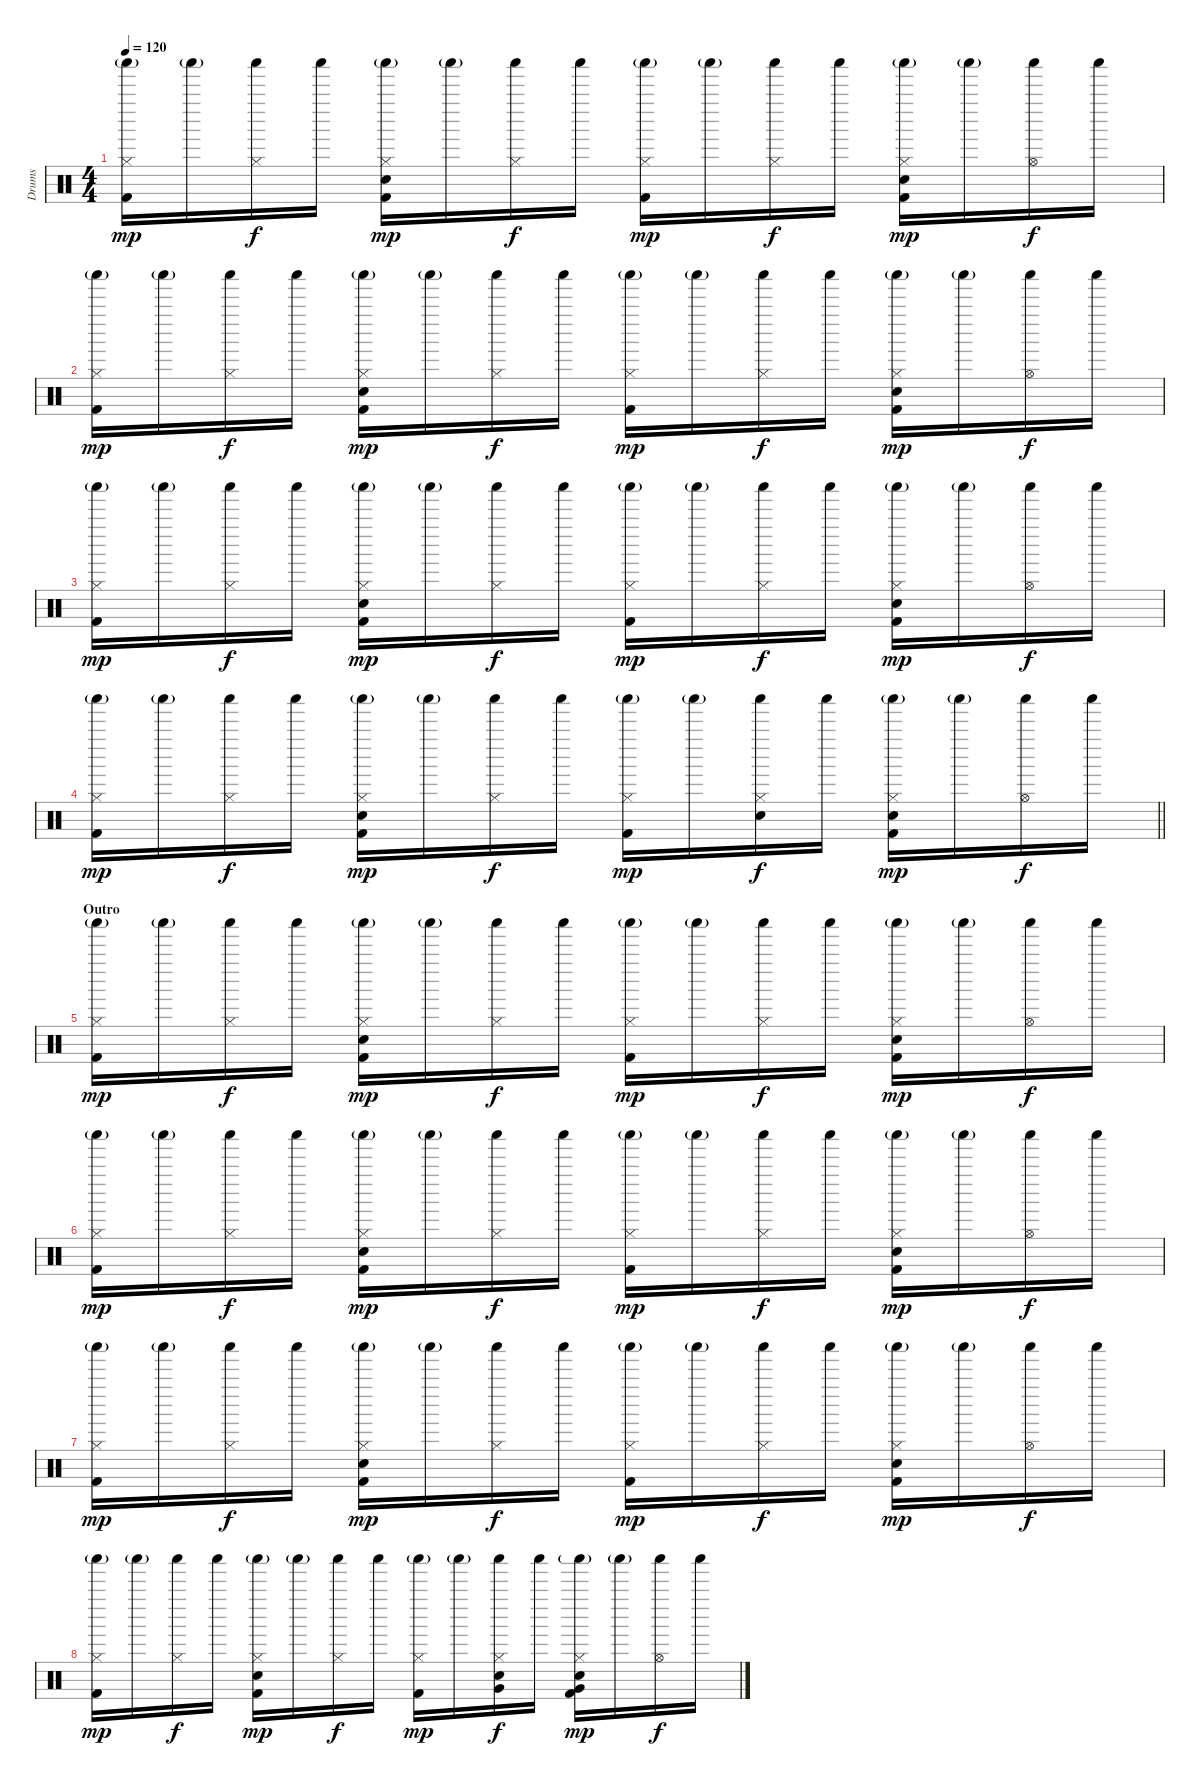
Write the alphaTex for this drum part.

\track ("Drums" "Drums") {instrument percussion}
\staff {score}
\articulation defaults
\ts (4 4)
\tempo 120
\clef neutral
\ks c
("Hi-Hat (closed)" "Shaker (hit)"{g} "Kick (hit) 2").16{dy mp} "Shaker (hit)"{g}.16 ("Hi-Hat (closed)" "Shaker (hit)").16{dy f} "Shaker (hit)".16 ("Hi-Hat (closed)" "Shaker (hit)"{g} "Electric Snare (hit)" "Kick (hit) 2").16{dy mp} "Shaker (hit)"{g}.16 ("Hi-Hat (closed)" "Shaker (hit)").16{dy f} "Shaker (hit)".16 ("Hi-Hat (closed)" "Shaker (hit)"{g} "Kick (hit) 2").16{dy mp} "Shaker (hit)"{g}.16 ("Hi-Hat (closed)" "Shaker (hit)").16{dy f} "Shaker (hit)".16 ("Hi-Hat (closed)" "Shaker (hit)"{g} "Electric Snare (hit)" "Kick (hit) 2").16{dy mp} "Shaker (hit)"{g}.16 ("Hi-Hat (open)" "Shaker (hit)").16{dy f} "Shaker (hit)".16 |
("Hi-Hat (closed)" "Shaker (hit)"{g} "Kick (hit) 2").16{dy mp} "Shaker (hit)"{g}.16 ("Hi-Hat (closed)" "Shaker (hit)").16{dy f} "Shaker (hit)".16 ("Hi-Hat (closed)" "Shaker (hit)"{g} "Electric Snare (hit)" "Kick (hit) 2").16{dy mp} "Shaker (hit)"{g}.16 ("Hi-Hat (closed)" "Shaker (hit)").16{dy f} "Shaker (hit)".16 ("Hi-Hat (closed)" "Shaker (hit)"{g} "Kick (hit) 2").16{dy mp} "Shaker (hit)"{g}.16 ("Hi-Hat (closed)" "Shaker (hit)").16{dy f} "Shaker (hit)".16 ("Hi-Hat (closed)" "Shaker (hit)"{g} "Electric Snare (hit)" "Kick (hit) 2").16{dy mp} "Shaker (hit)"{g}.16 ("Hi-Hat (open)" "Shaker (hit)").16{dy f} "Shaker (hit)".16 |
("Hi-Hat (closed)" "Shaker (hit)"{g} "Kick (hit) 2").16{dy mp} "Shaker (hit)"{g}.16 ("Hi-Hat (closed)" "Shaker (hit)").16{dy f} "Shaker (hit)".16 ("Hi-Hat (closed)" "Shaker (hit)"{g} "Electric Snare (hit)" "Kick (hit) 2").16{dy mp} "Shaker (hit)"{g}.16 ("Hi-Hat (closed)" "Shaker (hit)").16{dy f} "Shaker (hit)".16 ("Hi-Hat (closed)" "Shaker (hit)"{g} "Kick (hit) 2").16{dy mp} "Shaker (hit)"{g}.16 ("Hi-Hat (closed)" "Shaker (hit)").16{dy f} "Shaker (hit)".16 ("Hi-Hat (closed)" "Shaker (hit)"{g} "Electric Snare (hit)" "Kick (hit) 2").16{dy mp} "Shaker (hit)"{g}.16 ("Hi-Hat (open)" "Shaker (hit)").16{dy f} "Shaker (hit)".16 |
\barLineRight lightlight
("Hi-Hat (closed)" "Shaker (hit)"{g} "Kick (hit) 2").16{dy mp} "Shaker (hit)"{g}.16 ("Hi-Hat (closed)" "Shaker (hit)").16{dy f} "Shaker (hit)".16 ("Hi-Hat (closed)" "Shaker (hit)"{g} "Electric Snare (hit)" "Kick (hit) 2").16{dy mp} "Shaker (hit)"{g}.16 ("Hi-Hat (closed)" "Shaker (hit)").16{dy f} "Shaker (hit)".16 ("Hi-Hat (closed)" "Shaker (hit)"{g} "Kick (hit) 2").16{dy mp} "Shaker (hit)"{g}.16 ("Hi-Hat (closed)" "Shaker (hit)" "Electric Snare (hit)").16{dy f} "Shaker (hit)".16 ("Hi-Hat (closed)" "Shaker (hit)"{g} "Electric Snare (hit)" "Kick (hit) 2").16{dy mp} "Shaker (hit)"{g}.16 ("Hi-Hat (open)" "Shaker (hit)").16{dy f} "Shaker (hit)".16 |
\section ("" "Outro")
("Hi-Hat (closed)" "Shaker (hit)"{g} "Kick (hit) 2").16{dy mp} "Shaker (hit)"{g}.16 ("Hi-Hat (closed)" "Shaker (hit)").16{dy f} "Shaker (hit)".16 ("Hi-Hat (closed)" "Shaker (hit)"{g} "Electric Snare (hit)" "Kick (hit) 2").16{dy mp} "Shaker (hit)"{g}.16 ("Hi-Hat (closed)" "Shaker (hit)").16{dy f} "Shaker (hit)".16 ("Hi-Hat (closed)" "Shaker (hit)"{g} "Kick (hit) 2").16{dy mp} "Shaker (hit)"{g}.16 ("Hi-Hat (closed)" "Shaker (hit)").16{dy f} "Shaker (hit)".16 ("Hi-Hat (closed)" "Shaker (hit)"{g} "Electric Snare (hit)" "Kick (hit) 2").16{dy mp} "Shaker (hit)"{g}.16 ("Hi-Hat (open)" "Shaker (hit)").16{dy f} "Shaker (hit)".16 |
("Hi-Hat (closed)" "Shaker (hit)"{g} "Kick (hit) 2").16{dy mp} "Shaker (hit)"{g}.16 ("Hi-Hat (closed)" "Shaker (hit)").16{dy f} "Shaker (hit)".16 ("Hi-Hat (closed)" "Shaker (hit)"{g} "Electric Snare (hit)" "Kick (hit) 2").16{dy mp} "Shaker (hit)"{g}.16 ("Hi-Hat (closed)" "Shaker (hit)").16{dy f} "Shaker (hit)".16 ("Hi-Hat (closed)" "Shaker (hit)"{g} "Kick (hit) 2").16{dy mp} "Shaker (hit)"{g}.16 ("Hi-Hat (closed)" "Shaker (hit)").16{dy f} "Shaker (hit)".16 ("Hi-Hat (closed)" "Shaker (hit)"{g} "Electric Snare (hit)" "Kick (hit) 2").16{dy mp} "Shaker (hit)"{g}.16 ("Hi-Hat (open)" "Shaker (hit)").16{dy f} "Shaker (hit)".16 |
("Hi-Hat (closed)" "Shaker (hit)"{g} "Kick (hit) 2").16{dy mp} "Shaker (hit)"{g}.16 ("Hi-Hat (closed)" "Shaker (hit)").16{dy f} "Shaker (hit)".16 ("Hi-Hat (closed)" "Shaker (hit)"{g} "Electric Snare (hit)" "Kick (hit) 2").16{dy mp} "Shaker (hit)"{g}.16 ("Hi-Hat (closed)" "Shaker (hit)").16{dy f} "Shaker (hit)".16 ("Hi-Hat (closed)" "Shaker (hit)"{g} "Kick (hit) 2").16{dy mp} "Shaker (hit)"{g}.16 ("Hi-Hat (closed)" "Shaker (hit)").16{dy f} "Shaker (hit)".16 ("Hi-Hat (closed)" "Shaker (hit)"{g} "Electric Snare (hit)" "Kick (hit) 2").16{dy mp} "Shaker (hit)"{g}.16 ("Hi-Hat (open)" "Shaker (hit)").16{dy f} "Shaker (hit)".16 |
("Hi-Hat (closed)" "Shaker (hit)"{g} "Kick (hit) 2").16{dy mp} "Shaker (hit)"{g}.16 ("Hi-Hat (closed)" "Shaker (hit)").16{dy f} "Shaker (hit)".16 ("Hi-Hat (closed)" "Shaker (hit)"{g} "Electric Snare (hit)" "Kick (hit) 2").16{dy mp} "Shaker (hit)"{g}.16 ("Hi-Hat (closed)" "Shaker (hit)").16{dy f} "Shaker (hit)".16 ("Hi-Hat (closed)" "Shaker (hit)"{g} "Kick (hit) 2").16{dy mp} "Shaker (hit)"{g}.16 ("Hi-Hat (closed)" "Shaker (hit)" "Very Low Tom (hit)" "Electric Snare (hit)").16{dy f} "Shaker (hit)".16 ("Hi-Hat (closed)" "Shaker (hit)"{g} "Very Low Tom (hit)" "Electric Snare (hit)" "Kick (hit) 2").16{dy mp} "Shaker (hit)"{g}.16 ("Hi-Hat (open)" "Shaker (hit)").16{dy f} "Shaker (hit)".16
